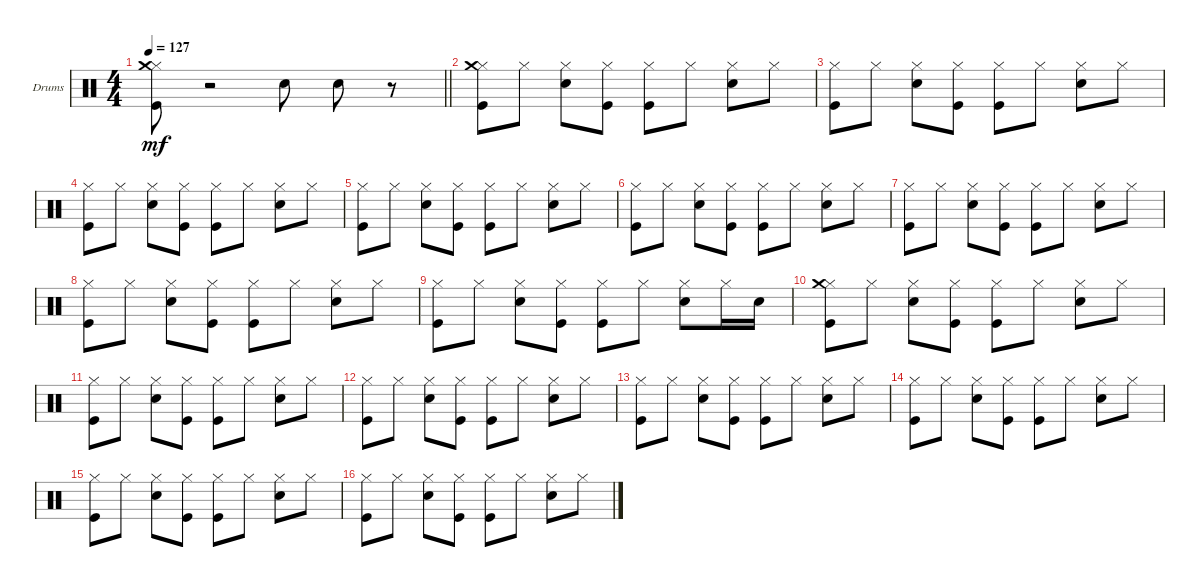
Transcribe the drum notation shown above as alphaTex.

\defaultSystemsLayout 4
\bracketExtendMode groupsimilarinstruments
\firstSystemTrackNameOrientation horizontal
\otherSystemsTrackNameOrientation horizontal
\track ("Drumkit" "Drums") {instrument percussion}
\staff {score}
\articulation defaults
\ts (4 4)
\tempo 127
\clef neutral
\scale
0.25
\barLineRight lightlight
\ks c
("Hi-Hat (closed)" "Kick (hit)" "Crash medium (hit)").8{dy mf} r.2 "Snare (hit) 2".8 "Snare (hit) 2".8 r.8 |
\scale
0.25 ("Hi-Hat (closed)" "Kick (hit)" "Crash medium (hit)").8 "Hi-Hat (closed)".8 ("Snare (hit) 2" "Hi-Hat (closed)").8 ("Kick (hit)" "Hi-Hat (closed)").8 ("Kick (hit)" "Hi-Hat (closed)").8 "Hi-Hat (closed)".8 ("Snare (hit) 2" "Hi-Hat (closed)").8 "Hi-Hat (closed)".8 |
\scale
0.25 ("Hi-Hat (closed)" "Kick (hit)").8 "Hi-Hat (closed)".8 ("Snare (hit) 2" "Hi-Hat (closed)").8 ("Kick (hit)" "Hi-Hat (closed)").8 ("Kick (hit)" "Hi-Hat (closed)").8 "Hi-Hat (closed)".8 ("Snare (hit) 2" "Hi-Hat (closed)").8 "Hi-Hat (closed)".8 |
\scale
0.25 ("Hi-Hat (closed)" "Kick (hit)").8 "Hi-Hat (closed)".8 ("Snare (hit) 2" "Hi-Hat (closed)").8 ("Kick (hit)" "Hi-Hat (closed)").8 ("Kick (hit)" "Hi-Hat (closed)").8 "Hi-Hat (closed)".8 ("Snare (hit) 2" "Hi-Hat (closed)").8 "Hi-Hat (closed)".8 |
\scale
0.25 ("Hi-Hat (closed)" "Kick (hit)").8 "Hi-Hat (closed)".8 ("Snare (hit) 2" "Hi-Hat (closed)").8 ("Kick (hit)" "Hi-Hat (closed)").8 ("Kick (hit)" "Hi-Hat (closed)").8 "Hi-Hat (closed)".8 ("Snare (hit) 2" "Hi-Hat (closed)").8 "Hi-Hat (closed)".8 |
\scale
0.25 ("Hi-Hat (closed)" "Kick (hit)").8 "Hi-Hat (closed)".8 ("Snare (hit) 2" "Hi-Hat (closed)").8 ("Kick (hit)" "Hi-Hat (closed)").8 ("Kick (hit)" "Hi-Hat (closed)").8 "Hi-Hat (closed)".8 ("Snare (hit) 2" "Hi-Hat (closed)").8 "Hi-Hat (closed)".8 |
\scale
0.25 ("Hi-Hat (closed)" "Kick (hit)").8 "Hi-Hat (closed)".8 ("Snare (hit) 2" "Hi-Hat (closed)").8 ("Kick (hit)" "Hi-Hat (closed)").8 ("Kick (hit)" "Hi-Hat (closed)").8 "Hi-Hat (closed)".8 ("Snare (hit) 2" "Hi-Hat (closed)").8 "Hi-Hat (closed)".8 |
\scale
0.25 ("Hi-Hat (closed)" "Kick (hit)").8 "Hi-Hat (closed)".8 ("Snare (hit) 2" "Hi-Hat (closed)").8 ("Kick (hit)" "Hi-Hat (closed)").8 ("Kick (hit)" "Hi-Hat (closed)").8 "Hi-Hat (closed)".8 ("Snare (hit) 2" "Hi-Hat (closed)").8 "Hi-Hat (closed)".8 |
\scale
0.25 ("Hi-Hat (closed)" "Kick (hit)").8 "Hi-Hat (closed)".8 ("Snare (hit) 2" "Hi-Hat (closed)").8 ("Kick (hit)" "Hi-Hat (closed)").8 ("Kick (hit)" "Hi-Hat (closed)").8 "Hi-Hat (closed)".8 ("Snare (hit) 2" "Hi-Hat (closed)").8 "Hi-Hat (closed)".16 "Snare (hit) 2".16 |
\scale
0.25 ("Hi-Hat (closed)" "Kick (hit)" "Crash medium (hit)").8 "Hi-Hat (closed)".8 ("Snare (hit) 2" "Hi-Hat (closed)").8 ("Kick (hit)" "Hi-Hat (closed)").8 ("Kick (hit)" "Hi-Hat (closed)").8 "Hi-Hat (closed)".8 ("Snare (hit) 2" "Hi-Hat (closed)").8 "Hi-Hat (closed)".8 |
\scale
0.25 ("Hi-Hat (closed)" "Kick (hit)").8 "Hi-Hat (closed)".8 ("Snare (hit) 2" "Hi-Hat (closed)").8 ("Kick (hit)" "Hi-Hat (closed)").8 ("Kick (hit)" "Hi-Hat (closed)").8 "Hi-Hat (closed)".8 ("Snare (hit) 2" "Hi-Hat (closed)").8 "Hi-Hat (closed)".8 |
\scale
0.25 ("Hi-Hat (closed)" "Kick (hit)").8 "Hi-Hat (closed)".8 ("Snare (hit) 2" "Hi-Hat (closed)").8 ("Kick (hit)" "Hi-Hat (closed)").8 ("Kick (hit)" "Hi-Hat (closed)").8 "Hi-Hat (closed)".8 ("Snare (hit) 2" "Hi-Hat (closed)").8 "Hi-Hat (closed)".8 |
\scale
0.25 ("Hi-Hat (closed)" "Kick (hit)").8 "Hi-Hat (closed)".8 ("Snare (hit) 2" "Hi-Hat (closed)").8 ("Kick (hit)" "Hi-Hat (closed)").8 ("Kick (hit)" "Hi-Hat (closed)").8 "Hi-Hat (closed)".8 ("Snare (hit) 2" "Hi-Hat (closed)").8 "Hi-Hat (closed)".8 |
\scale
0.25 ("Hi-Hat (closed)" "Kick (hit)").8 "Hi-Hat (closed)".8 ("Snare (hit) 2" "Hi-Hat (closed)").8 ("Kick (hit)" "Hi-Hat (closed)").8 ("Kick (hit)" "Hi-Hat (closed)").8 "Hi-Hat (closed)".8 ("Snare (hit) 2" "Hi-Hat (closed)").8 "Hi-Hat (closed)".8 |
\scale
0.25 ("Hi-Hat (closed)" "Kick (hit)").8 "Hi-Hat (closed)".8 ("Snare (hit) 2" "Hi-Hat (closed)").8 ("Kick (hit)" "Hi-Hat (closed)").8 ("Kick (hit)" "Hi-Hat (closed)").8 "Hi-Hat (closed)".8 ("Snare (hit) 2" "Hi-Hat (closed)").8 "Hi-Hat (closed)".8 |
\scale
0.25 ("Hi-Hat (closed)" "Kick (hit)").8 "Hi-Hat (closed)".8 ("Snare (hit) 2" "Hi-Hat (closed)").8 ("Kick (hit)" "Hi-Hat (closed)").8 ("Kick (hit)" "Hi-Hat (closed)").8 "Hi-Hat (closed)".8 ("Snare (hit) 2" "Hi-Hat (closed)").8 "Hi-Hat (closed)".8
